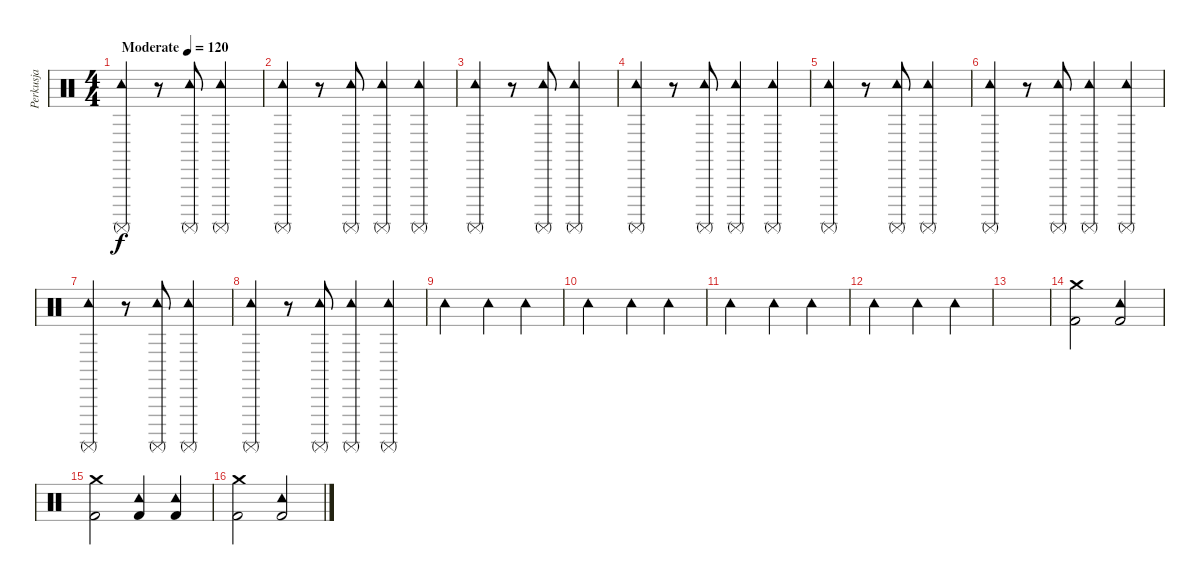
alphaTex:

\track ("Perkusja" "Perkusja") {instrument percussion}
\staff {score}
\articulation defaults
\ts (4 4)
\tempo (120 "Moderate")
\clef neutral
\ks c
("Tambourine (hit)" "Surdo (mute)").4{dy f} r.8 ("Tambourine (hit)" "Surdo (mute)").8 ("Tambourine (hit)" "Surdo (mute)").2 |
("Tambourine (hit)" "Surdo (mute)").4 r.8 ("Tambourine (hit)" "Surdo (mute)").8 ("Tambourine (hit)" "Surdo (mute)").4 ("Tambourine (hit)" "Surdo (mute)").4 |
("Tambourine (hit)" "Surdo (mute)").4 r.8 ("Tambourine (hit)" "Surdo (mute)").8 ("Tambourine (hit)" "Surdo (mute)").2 |
("Tambourine (hit)" "Surdo (mute)").4 r.8 ("Tambourine (hit)" "Surdo (mute)").8 ("Tambourine (hit)" "Surdo (mute)").4 ("Tambourine (hit)" "Surdo (mute)").4 |
("Tambourine (hit)" "Surdo (mute)").4 r.8 ("Tambourine (hit)" "Surdo (mute)").8 ("Tambourine (hit)" "Surdo (mute)").2 |
("Tambourine (hit)" "Surdo (mute)").4 r.8 ("Tambourine (hit)" "Surdo (mute)").8 ("Tambourine (hit)" "Surdo (mute)").4 ("Tambourine (hit)" "Surdo (mute)").4 |
("Tambourine (hit)" "Surdo (mute)").4 r.8 ("Tambourine (hit)" "Surdo (mute)").8 ("Tambourine (hit)" "Surdo (mute)").2 |
("Tambourine (hit)" "Surdo (mute)").4 r.8 ("Tambourine (hit)" "Surdo (mute)").8 ("Tambourine (hit)" "Surdo (mute)").4 ("Tambourine (hit)" "Surdo (mute)").4 |
"Tambourine (hit)".2 "Tambourine (hit)".4 "Tambourine (hit)".4 |
"Tambourine (hit)".2 "Tambourine (hit)".4 "Tambourine (hit)".4 |
"Tambourine (hit)".2 "Tambourine (hit)".4 "Tambourine (hit)".4 |
"Tambourine (hit)".2 "Tambourine (hit)".4 "Tambourine (hit)".4 |
|
("Crash medium (hit)" "Kick (hit) 2").2 ("Tambourine (hit)" "Kick (hit) 2").2 |
("Crash medium (hit)" "Kick (hit) 2").2 ("Tambourine (hit)" "Kick (hit) 2").4 ("Tambourine (hit)" "Kick (hit) 2").4 |
("Crash medium (hit)" "Kick (hit) 2").2 ("Tambourine (hit)" "Kick (hit) 2").2
